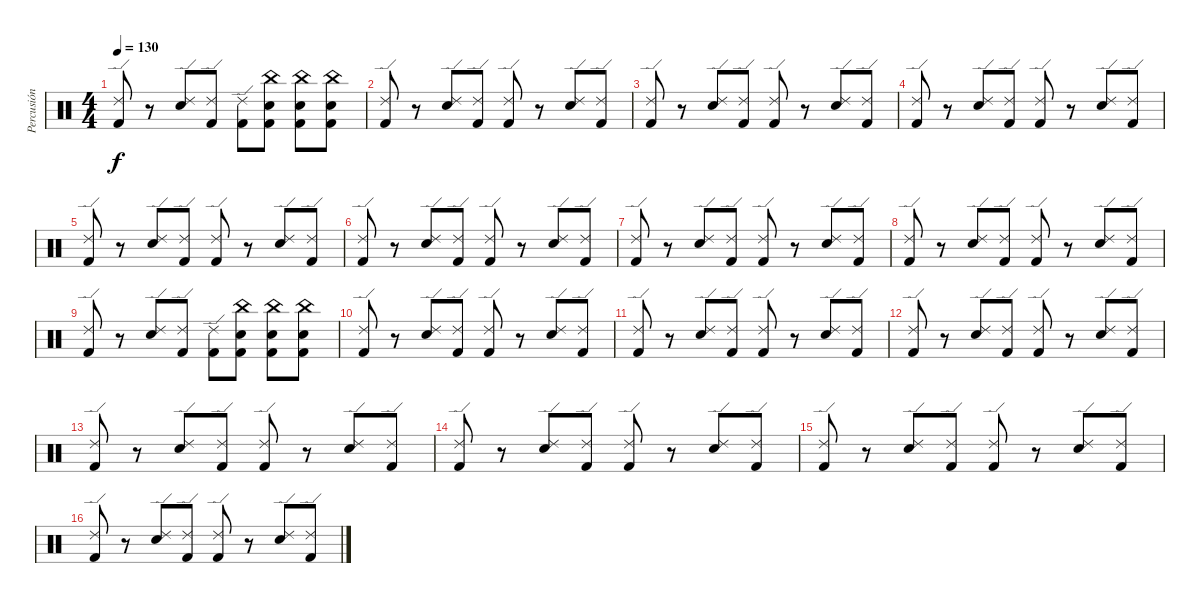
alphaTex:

\track ("Percusión" "Percusión") {instrument percussion}
\staff {score}
\articulation defaults
\ts (4 4)
\tempo 130
\clef neutral
\ks c
("Kick (hit) 2" "Ride (edge) 2").8{dy f} r.8 ("Snare (hit) 2" "Ride (edge) 2").8 ("Kick (hit) 2" "Ride (edge) 2").8 ("Kick (hit) 2" "Ride (edge) 2").8 ("Kick (hit) 2" "Snare (hit) 2" "China (hit)").8 ("Kick (hit) 2" "Snare (hit) 2" "China (hit)").8 ("Kick (hit) 2" "Snare (hit) 2" "China (hit)").8 |
("Kick (hit) 2" "Ride (edge) 2").8 r.8 ("Snare (hit) 2" "Ride (edge) 2").8 ("Kick (hit) 2" "Ride (edge) 2").8 ("Kick (hit) 2" "Ride (edge) 2").8 r.8 ("Snare (hit) 2" "Ride (edge) 2").8 ("Kick (hit) 2" "Ride (edge) 2").8 |
("Kick (hit) 2" "Ride (edge) 2").8 r.8 ("Snare (hit) 2" "Ride (edge) 2").8 ("Kick (hit) 2" "Ride (edge) 2").8 ("Kick (hit) 2" "Ride (edge) 2").8 r.8 ("Snare (hit) 2" "Ride (edge) 2").8 ("Kick (hit) 2" "Ride (edge) 2").8 |
("Kick (hit) 2" "Ride (edge) 2").8 r.8 ("Snare (hit) 2" "Ride (edge) 2").8 ("Kick (hit) 2" "Ride (edge) 2").8 ("Kick (hit) 2" "Ride (edge) 2").8 r.8 ("Snare (hit) 2" "Ride (edge) 2").8 ("Kick (hit) 2" "Ride (edge) 2").8 |
("Kick (hit) 2" "Ride (edge) 2").8 r.8 ("Snare (hit) 2" "Ride (edge) 2").8 ("Kick (hit) 2" "Ride (edge) 2").8 ("Kick (hit) 2" "Ride (edge) 2").8 r.8 ("Snare (hit) 2" "Ride (edge) 2").8 ("Kick (hit) 2" "Ride (edge) 2").8 |
("Kick (hit) 2" "Ride (edge) 2").8 r.8 ("Snare (hit) 2" "Ride (edge) 2").8 ("Kick (hit) 2" "Ride (edge) 2").8 ("Kick (hit) 2" "Ride (edge) 2").8 r.8 ("Snare (hit) 2" "Ride (edge) 2").8 ("Kick (hit) 2" "Ride (edge) 2").8 |
("Kick (hit) 2" "Ride (edge) 2").8 r.8 ("Snare (hit) 2" "Ride (edge) 2").8 ("Kick (hit) 2" "Ride (edge) 2").8 ("Kick (hit) 2" "Ride (edge) 2").8 r.8 ("Snare (hit) 2" "Ride (edge) 2").8 ("Kick (hit) 2" "Ride (edge) 2").8 |
("Kick (hit) 2" "Ride (edge) 2").8 r.8 ("Snare (hit) 2" "Ride (edge) 2").8 ("Kick (hit) 2" "Ride (edge) 2").8 ("Kick (hit) 2" "Ride (edge) 2").8 r.8 ("Snare (hit) 2" "Ride (edge) 2").8 ("Kick (hit) 2" "Ride (edge) 2").8 |
("Kick (hit) 2" "Ride (edge) 2").8 r.8 ("Snare (hit) 2" "Ride (edge) 2").8 ("Kick (hit) 2" "Ride (edge) 2").8 ("Kick (hit) 2" "Ride (edge) 2").8 ("Kick (hit) 2" "Snare (hit) 2" "China (hit)").8 ("Kick (hit) 2" "Snare (hit) 2" "China (hit)").8 ("Kick (hit) 2" "Snare (hit) 2" "China (hit)").8 |
("Kick (hit) 2" "Ride (edge) 2").8 r.8 ("Snare (hit) 2" "Ride (edge) 2").8 ("Kick (hit) 2" "Ride (edge) 2").8 ("Kick (hit) 2" "Ride (edge) 2").8 r.8 ("Snare (hit) 2" "Ride (edge) 2").8 ("Kick (hit) 2" "Ride (edge) 2").8 |
("Kick (hit) 2" "Ride (edge) 2").8 r.8 ("Snare (hit) 2" "Ride (edge) 2").8 ("Kick (hit) 2" "Ride (edge) 2").8 ("Kick (hit) 2" "Ride (edge) 2").8 r.8 ("Snare (hit) 2" "Ride (edge) 2").8 ("Kick (hit) 2" "Ride (edge) 2").8 |
("Kick (hit) 2" "Ride (edge) 2").8 r.8 ("Snare (hit) 2" "Ride (edge) 2").8 ("Kick (hit) 2" "Ride (edge) 2").8 ("Kick (hit) 2" "Ride (edge) 2").8 r.8 ("Snare (hit) 2" "Ride (edge) 2").8 ("Kick (hit) 2" "Ride (edge) 2").8 |
("Kick (hit) 2" "Ride (edge) 2").8 r.8 ("Snare (hit) 2" "Ride (edge) 2").8 ("Kick (hit) 2" "Ride (edge) 2").8 ("Kick (hit) 2" "Ride (edge) 2").8 r.8 ("Snare (hit) 2" "Ride (edge) 2").8 ("Kick (hit) 2" "Ride (edge) 2").8 |
("Kick (hit) 2" "Ride (edge) 2").8 r.8 ("Snare (hit) 2" "Ride (edge) 2").8 ("Kick (hit) 2" "Ride (edge) 2").8 ("Kick (hit) 2" "Ride (edge) 2").8 r.8 ("Snare (hit) 2" "Ride (edge) 2").8 ("Kick (hit) 2" "Ride (edge) 2").8 |
("Kick (hit) 2" "Ride (edge) 2").8 r.8 ("Snare (hit) 2" "Ride (edge) 2").8 ("Kick (hit) 2" "Ride (edge) 2").8 ("Kick (hit) 2" "Ride (edge) 2").8 r.8 ("Snare (hit) 2" "Ride (edge) 2").8 ("Kick (hit) 2" "Ride (edge) 2").8 |
("Kick (hit) 2" "Ride (edge) 2").8 r.8 ("Snare (hit) 2" "Ride (edge) 2").8 ("Kick (hit) 2" "Ride (edge) 2").8 ("Kick (hit) 2" "Ride (edge) 2").8 r.8 ("Snare (hit) 2" "Ride (edge) 2").8 ("Kick (hit) 2" "Ride (edge) 2").8
